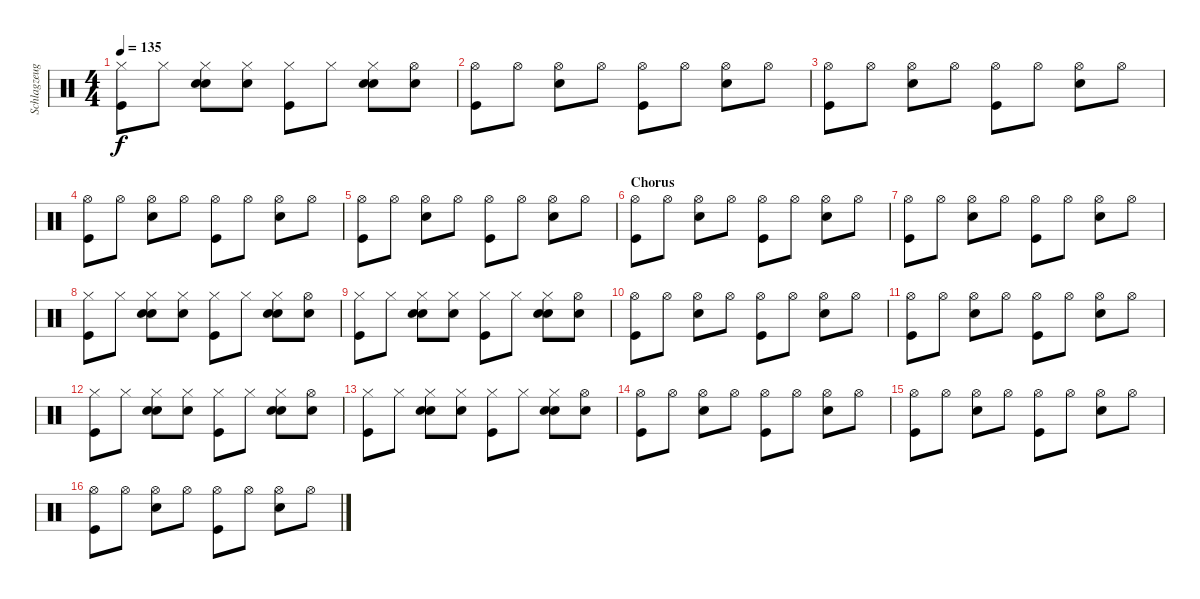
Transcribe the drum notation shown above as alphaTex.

\track ("Schlagzeug - Bela B." "Schlagzeug") {instrument percussion}
\staff {score}
\articulation defaults
\ts (4 4)
\tempo 135
\clef neutral
\ks c
("Kick (hit)" "Hi-Hat (closed)").8{dy f} "Hi-Hat (closed)".8 ("Electric Snare (hit)" "Hi-Hat (closed)" "Hand Clap (hit)").8 ("Hi-Hat (closed)" "Hand Clap (hit)").8 ("Kick (hit)" "Hi-Hat (closed)").8 "Hi-Hat (closed)".8 ("Electric Snare (hit)" "Hi-Hat (closed)" "Hand Clap (hit)").8 ("Hi-Hat (open)" "Hand Clap (hit)").8 |
("Kick (hit)" "Hi-Hat (open)").8 "Hi-Hat (open)".8 ("Electric Snare (hit)" "Hi-Hat (open)").8 "Hi-Hat (open)".8 ("Kick (hit)" "Hi-Hat (open)").8 "Hi-Hat (open)".8 ("Electric Snare (hit)" "Hi-Hat (open)").8 "Hi-Hat (open)".8 |
("Kick (hit)" "Hi-Hat (open)").8 "Hi-Hat (open)".8 ("Electric Snare (hit)" "Hi-Hat (open)").8 "Hi-Hat (open)".8 ("Kick (hit)" "Hi-Hat (open)").8 "Hi-Hat (open)".8 ("Electric Snare (hit)" "Hi-Hat (open)").8 "Hi-Hat (open)".8 |
("Kick (hit)" "Hi-Hat (open)").8 "Hi-Hat (open)".8 ("Electric Snare (hit)" "Hi-Hat (open)").8 "Hi-Hat (open)".8 ("Kick (hit)" "Hi-Hat (open)").8 "Hi-Hat (open)".8 ("Electric Snare (hit)" "Hi-Hat (open)").8 "Hi-Hat (open)".8 |
("Kick (hit)" "Hi-Hat (open)").8 "Hi-Hat (open)".8 ("Electric Snare (hit)" "Hi-Hat (open)").8 "Hi-Hat (open)".8 ("Kick (hit)" "Hi-Hat (open)").8 "Hi-Hat (open)".8 ("Electric Snare (hit)" "Hi-Hat (open)").8 "Hi-Hat (open)".8 |
\section ("" "Chorus")
("Kick (hit)" "Hi-Hat (open)").8 "Hi-Hat (open)".8 ("Electric Snare (hit)" "Hi-Hat (open)").8 "Hi-Hat (open)".8 ("Kick (hit)" "Hi-Hat (open)").8 "Hi-Hat (open)".8 ("Electric Snare (hit)" "Hi-Hat (open)").8 "Hi-Hat (open)".8 |
("Kick (hit)" "Hi-Hat (open)").8 "Hi-Hat (open)".8 ("Electric Snare (hit)" "Hi-Hat (open)").8 "Hi-Hat (open)".8 ("Kick (hit)" "Hi-Hat (open)").8 "Hi-Hat (open)".8 ("Electric Snare (hit)" "Hi-Hat (open)").8 "Hi-Hat (open)".8 |
("Kick (hit)" "Hi-Hat (closed)").8 "Hi-Hat (closed)".8 ("Hand Clap (hit)" "Hi-Hat (closed)" "Electric Snare (hit)").8 ("Hi-Hat (closed)" "Hand Clap (hit)").8 ("Kick (hit)" "Hi-Hat (closed)").8 "Hi-Hat (closed)".8 ("Hand Clap (hit)" "Hi-Hat (closed)" "Electric Snare (hit)").8 ("Hi-Hat (open)" "Hand Clap (hit)").8 |
("Kick (hit)" "Hi-Hat (closed)").8 "Hi-Hat (closed)".8 ("Electric Snare (hit)" "Hi-Hat (closed)" "Hand Clap (hit)").8 ("Hi-Hat (closed)" "Hand Clap (hit)").8 ("Kick (hit)" "Hi-Hat (closed)").8 "Hi-Hat (closed)".8 ("Electric Snare (hit)" "Hi-Hat (closed)" "Hand Clap (hit)").8 ("Hi-Hat (open)" "Hand Clap (hit)").8 |
("Kick (hit)" "Hi-Hat (open)").8 "Hi-Hat (open)".8 ("Electric Snare (hit)" "Hi-Hat (open)").8 "Hi-Hat (open)".8 ("Kick (hit)" "Hi-Hat (open)").8 "Hi-Hat (open)".8 ("Electric Snare (hit)" "Hi-Hat (open)").8 "Hi-Hat (open)".8 |
("Kick (hit)" "Hi-Hat (open)").8 "Hi-Hat (open)".8 ("Electric Snare (hit)" "Hi-Hat (open)").8 "Hi-Hat (open)".8 ("Kick (hit)" "Hi-Hat (open)").8 "Hi-Hat (open)".8 ("Electric Snare (hit)" "Hi-Hat (open)").8 "Hi-Hat (open)".8 |
("Kick (hit)" "Hi-Hat (closed)").8 "Hi-Hat (closed)".8 ("Hand Clap (hit)" "Hi-Hat (closed)" "Electric Snare (hit)").8 ("Hi-Hat (closed)" "Hand Clap (hit)").8 ("Kick (hit)" "Hi-Hat (closed)").8 "Hi-Hat (closed)".8 ("Hand Clap (hit)" "Hi-Hat (closed)" "Electric Snare (hit)").8 ("Hi-Hat (open)" "Hand Clap (hit)").8 |
("Kick (hit)" "Hi-Hat (closed)").8 "Hi-Hat (closed)".8 ("Electric Snare (hit)" "Hi-Hat (closed)" "Hand Clap (hit)").8 ("Hi-Hat (closed)" "Hand Clap (hit)").8 ("Kick (hit)" "Hi-Hat (closed)").8 "Hi-Hat (closed)".8 ("Electric Snare (hit)" "Hi-Hat (closed)" "Hand Clap (hit)").8 ("Hi-Hat (open)" "Hand Clap (hit)").8 |
("Kick (hit)" "Hi-Hat (open)").8 "Hi-Hat (open)".8 ("Electric Snare (hit)" "Hi-Hat (open)").8 "Hi-Hat (open)".8 ("Kick (hit)" "Hi-Hat (open)").8 "Hi-Hat (open)".8 ("Electric Snare (hit)" "Hi-Hat (open)").8 "Hi-Hat (open)".8 |
("Kick (hit)" "Hi-Hat (open)").8 "Hi-Hat (open)".8 ("Electric Snare (hit)" "Hi-Hat (open)").8 "Hi-Hat (open)".8 ("Kick (hit)" "Hi-Hat (open)").8 "Hi-Hat (open)".8 ("Electric Snare (hit)" "Hi-Hat (open)").8 "Hi-Hat (open)".8 |
("Kick (hit)" "Hi-Hat (open)").8 "Hi-Hat (open)".8 ("Electric Snare (hit)" "Hi-Hat (open)").8 "Hi-Hat (open)".8 ("Kick (hit)" "Hi-Hat (open)").8 "Hi-Hat (open)".8 ("Electric Snare (hit)" "Hi-Hat (open)").8 "Hi-Hat (open)".8
